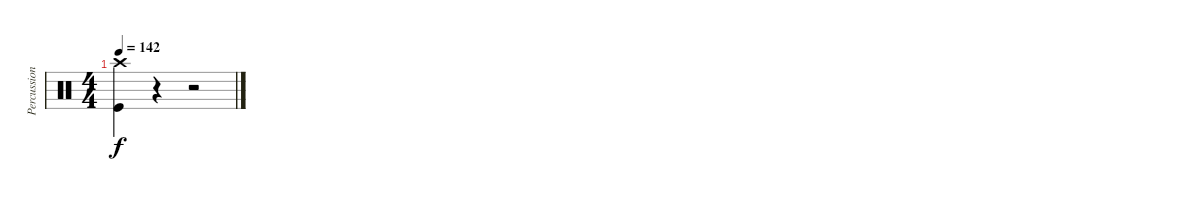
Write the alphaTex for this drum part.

\track ("Percussion" "Percussion") {instrument percussion}
\staff {score}
\articulation defaults
\ts (4 4)
\tempo 142
\clef neutral
\ks c
("Crash high (hit)" "Kick (hit)").4{dy f} r.4 r.2
